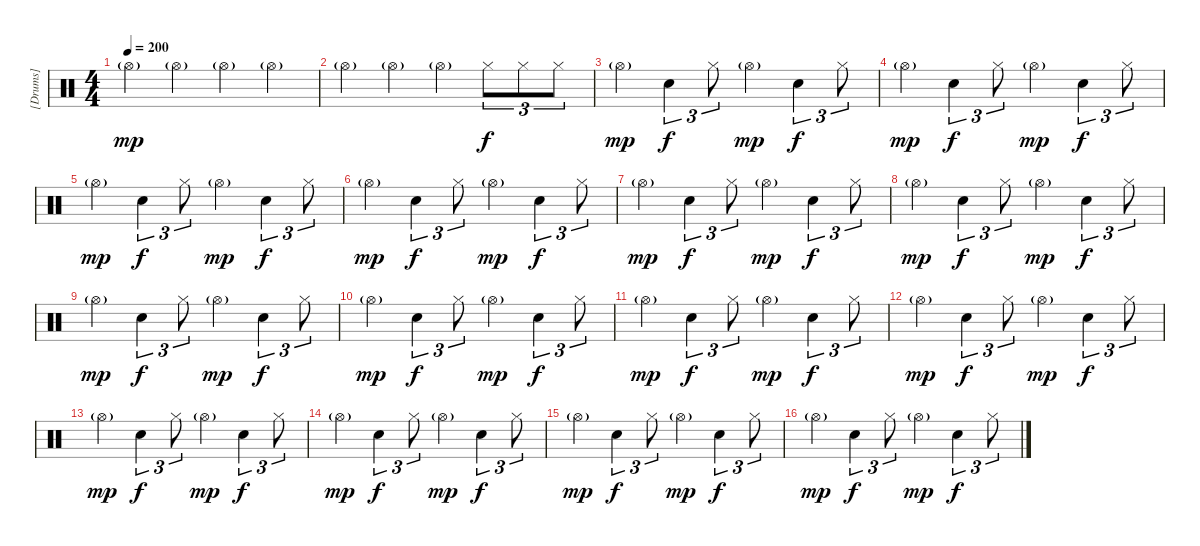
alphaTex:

\track ("[Drums]" "[Drums]") {instrument percussion}
\staff {score}
\articulation defaults
\ts (4 4)
\tempo 200
\clef neutral
\ks c "Hi-Hat (open)"{g}.4{dy mp} "Hi-Hat (open)"{g}.4 "Hi-Hat (open)"{g}.4 "Hi-Hat (open)"{g}.4
|
"Hi-Hat (open)"{g}.4 "Hi-Hat (open)"{g}.4 "Hi-Hat (open)"{g}.4 "Hi-Hat (closed)".8{tu (3 2) dy f} "Hi-Hat (closed)".8{tu (3 2)} "Hi-Hat (closed)".8{tu (3 2)} |
"Hi-Hat (open)"{g}.4{dy mp} "Electric Snare (hit)".4{tu (3 2) dy f} "Hi-Hat (closed)".8{tu (3 2)} "Hi-Hat (open)"{g}.4{dy mp} "Electric Snare (hit)".4{tu (3 2) dy f} "Hi-Hat (closed)".8{tu (3 2)} |
"Hi-Hat (open)"{g}.4{dy mp} "Electric Snare (hit)".4{tu (3 2) dy f} "Hi-Hat (closed)".8{tu (3 2)} "Hi-Hat (open)"{g}.4{dy mp} "Electric Snare (hit)".4{tu (3 2) dy f} "Hi-Hat (closed)".8{tu (3 2)} |
"Hi-Hat (open)"{g}.4{dy mp} "Electric Snare (hit)".4{tu (3 2) dy f} "Hi-Hat (closed)".8{tu (3 2)} "Hi-Hat (open)"{g}.4{dy mp} "Electric Snare (hit)".4{tu (3 2) dy f} "Hi-Hat (closed)".8{tu (3 2)} |
"Hi-Hat (open)"{g}.4{dy mp} "Electric Snare (hit)".4{tu (3 2) dy f} "Hi-Hat (closed)".8{tu (3 2)} "Hi-Hat (open)"{g}.4{dy mp} "Electric Snare (hit)".4{tu (3 2) dy f} "Hi-Hat (closed)".8{tu (3 2)} |
"Hi-Hat (open)"{g}.4{dy mp} "Electric Snare (hit)".4{tu (3 2) dy f} "Hi-Hat (closed)".8{tu (3 2)} "Hi-Hat (open)"{g}.4{dy mp} "Electric Snare (hit)".4{tu (3 2) dy f} "Hi-Hat (closed)".8{tu (3 2)} |
"Hi-Hat (open)"{g}.4{dy mp} "Electric Snare (hit)".4{tu (3 2) dy f} "Hi-Hat (closed)".8{tu (3 2)} "Hi-Hat (open)"{g}.4{dy mp} "Electric Snare (hit)".4{tu (3 2) dy f} "Hi-Hat (closed)".8{tu (3 2)} |
"Hi-Hat (open)"{g}.4{dy mp} "Electric Snare (hit)".4{tu (3 2) dy f} "Hi-Hat (closed)".8{tu (3 2)} "Hi-Hat (open)"{g}.4{dy mp} "Electric Snare (hit)".4{tu (3 2) dy f} "Hi-Hat (closed)".8{tu (3 2)} |
"Hi-Hat (open)"{g}.4{dy mp} "Electric Snare (hit)".4{tu (3 2) dy f} "Hi-Hat (closed)".8{tu (3 2)} "Hi-Hat (open)"{g}.4{dy mp} "Electric Snare (hit)".4{tu (3 2) dy f} "Hi-Hat (closed)".8{tu (3 2)} |
"Hi-Hat (open)"{g}.4{dy mp} "Electric Snare (hit)".4{tu (3 2) dy f} "Hi-Hat (closed)".8{tu (3 2)} "Hi-Hat (open)"{g}.4{dy mp} "Electric Snare (hit)".4{tu (3 2) dy f} "Hi-Hat (closed)".8{tu (3 2)} |
"Hi-Hat (open)"{g}.4{dy mp} "Electric Snare (hit)".4{tu (3 2) dy f} "Hi-Hat (closed)".8{tu (3 2)} "Hi-Hat (open)"{g}.4{dy mp} "Electric Snare (hit)".4{tu (3 2) dy f} "Hi-Hat (closed)".8{tu (3 2)} |
"Hi-Hat (open)"{g}.4{dy mp} "Electric Snare (hit)".4{tu (3 2) dy f} "Hi-Hat (closed)".8{tu (3 2)} "Hi-Hat (open)"{g}.4{dy mp} "Electric Snare (hit)".4{tu (3 2) dy f} "Hi-Hat (closed)".8{tu (3 2)} |
"Hi-Hat (open)"{g}.4{dy mp} "Electric Snare (hit)".4{tu (3 2) dy f} "Hi-Hat (closed)".8{tu (3 2)} "Hi-Hat (open)"{g}.4{dy mp} "Electric Snare (hit)".4{tu (3 2) dy f} "Hi-Hat (closed)".8{tu (3 2)} |
"Hi-Hat (open)"{g}.4{dy mp} "Electric Snare (hit)".4{tu (3 2) dy f} "Hi-Hat (closed)".8{tu (3 2)} "Hi-Hat (open)"{g}.4{dy mp} "Electric Snare (hit)".4{tu (3 2) dy f} "Hi-Hat (closed)".8{tu (3 2)} |
"Hi-Hat (open)"{g}.4{dy mp} "Electric Snare (hit)".4{tu (3 2) dy f} "Hi-Hat (closed)".8{tu (3 2)} "Hi-Hat (open)"{g}.4{dy mp} "Electric Snare (hit)".4{tu (3 2) dy f} "Hi-Hat (closed)".8{tu (3 2)}
